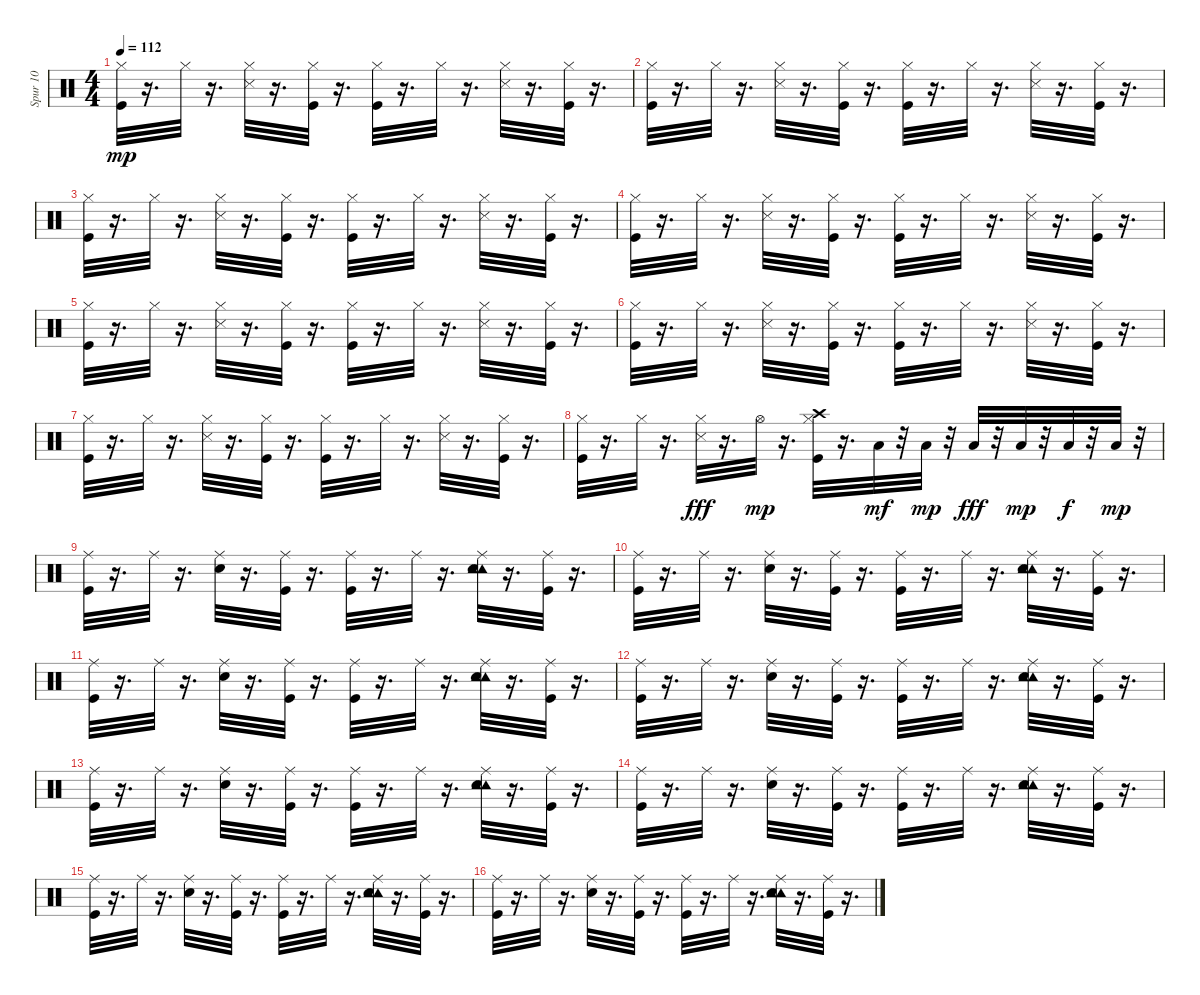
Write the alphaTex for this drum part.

\track ("Spur 10" "Spur 10") {instrument percussion}
\staff {score}
\articulation defaults
\ts (4 4)
\tempo 112
\clef neutral
\ks c
("Kick (hit)" "Hi-Hat (closed)").32{dy mp} r.16{d} "Hi-Hat (closed)".32 r.16{d} ("Snare (side stick) 3" "Hi-Hat (closed)").32 r.16{d} ("Kick (hit)" "Hi-Hat (closed)").32 r.16{d} ("Kick (hit)" "Hi-Hat (closed)").32 r.16{d} "Hi-Hat (closed)".32 r.16{d} ("Snare (side stick) 3" "Hi-Hat (closed)").32 r.16{d} ("Kick (hit)" "Hi-Hat (closed)").32 r.16{d} |
("Kick (hit)" "Hi-Hat (closed)").32 r.16{d} "Hi-Hat (closed)".32 r.16{d} ("Snare (side stick) 3" "Hi-Hat (closed)").32 r.16{d} ("Kick (hit)" "Hi-Hat (closed)").32 r.16{d} ("Kick (hit)" "Hi-Hat (closed)").32 r.16{d} "Hi-Hat (closed)".32 r.16{d} ("Snare (side stick) 3" "Hi-Hat (closed)").32 r.16{d} ("Kick (hit)" "Hi-Hat (closed)").32 r.16{d} |
("Kick (hit)" "Hi-Hat (closed)").32 r.16{d} "Hi-Hat (closed)".32 r.16{d} ("Snare (side stick) 3" "Hi-Hat (closed)").32 r.16{d} ("Kick (hit)" "Hi-Hat (closed)").32 r.16{d} ("Kick (hit)" "Hi-Hat (closed)").32 r.16{d} "Hi-Hat (closed)".32 r.16{d} ("Snare (side stick) 3" "Hi-Hat (closed)").32 r.16{d} ("Kick (hit)" "Hi-Hat (closed)").32 r.16{d} |
("Kick (hit)" "Hi-Hat (closed)").32 r.16{d} "Hi-Hat (closed)".32 r.16{d} ("Snare (side stick) 3" "Hi-Hat (closed)").32 r.16{d} ("Kick (hit)" "Hi-Hat (closed)").32 r.16{d} ("Kick (hit)" "Hi-Hat (closed)").32 r.16{d} "Hi-Hat (closed)".32 r.16{d} ("Snare (side stick) 3" "Hi-Hat (closed)").32 r.16{d} ("Kick (hit)" "Hi-Hat (closed)").32 r.16{d} |
("Kick (hit)" "Hi-Hat (closed)").32 r.16{d} "Hi-Hat (closed)".32 r.16{d} ("Snare (side stick) 3" "Hi-Hat (closed)").32 r.16{d} ("Kick (hit)" "Hi-Hat (closed)").32 r.16{d} ("Kick (hit)" "Hi-Hat (closed)").32 r.16{d} "Hi-Hat (closed)".32 r.16{d} ("Snare (side stick) 3" "Hi-Hat (closed)").32 r.16{d} ("Kick (hit)" "Hi-Hat (closed)").32 r.16{d} |
("Kick (hit)" "Hi-Hat (closed)").32 r.16{d} "Hi-Hat (closed)".32 r.16{d} ("Snare (side stick) 3" "Hi-Hat (closed)").32 r.16{d} ("Kick (hit)" "Hi-Hat (closed)").32 r.16{d} ("Kick (hit)" "Hi-Hat (closed)").32 r.16{d} "Hi-Hat (closed)".32 r.16{d} ("Snare (side stick) 3" "Hi-Hat (closed)").32 r.16{d} ("Kick (hit)" "Hi-Hat (closed)").32 r.16{d} |
("Kick (hit)" "Hi-Hat (closed)").32 r.16{d} "Hi-Hat (closed)".32 r.16{d} ("Snare (side stick) 3" "Hi-Hat (closed)").32 r.16{d} ("Kick (hit)" "Hi-Hat (closed)").32 r.16{d} ("Kick (hit)" "Hi-Hat (closed)").32 r.16{d} "Hi-Hat (closed)".32 r.16{d} ("Snare (side stick) 3" "Hi-Hat (closed)").32 r.16{d} ("Kick (hit)" "Hi-Hat (closed)").32 r.16{d} |
("Kick (hit)" "Hi-Hat (closed)").32 r.16{d} "Hi-Hat (closed)".32 r.16{d} ("Hi-Hat (closed)" "Snare (side stick) 3").32{dy fff} r.16{d} "Hi-Hat (open)".32{dy mp} r.16{d} ("Crash high (hit)" "Kick (hit)" "Hi-Hat (closed)").32 r.16{d} "Low Tom (hit)".32{dy mf} r.32 "Low Tom (hit)".32{dy mp} r.32 "Low Floor Tom (hit)".32{dy fff} r.32 "Low Floor Tom (hit)".32{dy mp} r.32 "Low Floor Tom (hit)".32{dy f} r.32 "Low Floor Tom (hit)".32{dy mp} r.32 |
("Kick (hit)" "Ride (middle)").32 r.16{d} "Ride (middle)".32 r.16{d} ("Snare (hit) 2" "Ride (middle)").32 r.16{d} ("Kick (hit)" "Ride (middle)").32 r.16{d} ("Kick (hit)" "Ride (middle)").32 r.16{d} "Ride (middle)".32 r.16{d} ("Tambourine (hit)" "Snare (hit) 2" "Tambourine (hit)" "Ride (middle)").32 r.16{d} ("Kick (hit)" "Ride (middle)").32 r.16{d} |
("Kick (hit)" "Ride (middle)").32 r.16{d} "Ride (middle)".32 r.16{d} ("Snare (hit) 2" "Ride (middle)").32 r.16{d} ("Kick (hit)" "Ride (middle)").32 r.16{d} ("Kick (hit)" "Ride (middle)").32 r.16{d} "Ride (middle)".32 r.16{d} ("Tambourine (hit)" "Snare (hit) 2" "Tambourine (hit)" "Ride (middle)").32 r.16{d} ("Kick (hit)" "Ride (middle)").32 r.16{d} |
("Kick (hit)" "Ride (middle)").32 r.16{d} "Ride (middle)".32 r.16{d} ("Snare (hit) 2" "Ride (middle)").32 r.16{d} ("Kick (hit)" "Ride (middle)").32 r.16{d} ("Kick (hit)" "Ride (middle)").32 r.16{d} "Ride (middle)".32 r.16{d} ("Tambourine (hit)" "Snare (hit) 2" "Tambourine (hit)" "Ride (middle)").32 r.16{d} ("Kick (hit)" "Ride (middle)").32 r.16{d} |
("Kick (hit)" "Ride (middle)").32 r.16{d} "Ride (middle)".32 r.16{d} ("Snare (hit) 2" "Ride (middle)").32 r.16{d} ("Kick (hit)" "Ride (middle)").32 r.16{d} ("Kick (hit)" "Ride (middle)").32 r.16{d} "Ride (middle)".32 r.16{d} ("Tambourine (hit)" "Snare (hit) 2" "Tambourine (hit)" "Ride (middle)").32 r.16{d} ("Kick (hit)" "Ride (middle)").32 r.16{d} |
("Kick (hit)" "Ride (middle)").32 r.16{d} "Ride (middle)".32 r.16{d} ("Snare (hit) 2" "Ride (middle)").32 r.16{d} ("Kick (hit)" "Ride (middle)").32 r.16{d} ("Kick (hit)" "Ride (middle)").32 r.16{d} "Ride (middle)".32 r.16{d} ("Tambourine (hit)" "Snare (hit) 2" "Tambourine (hit)" "Ride (middle)").32 r.16{d} ("Kick (hit)" "Ride (middle)").32 r.16{d} |
("Kick (hit)" "Ride (middle)").32 r.16{d} "Ride (middle)".32 r.16{d} ("Snare (hit) 2" "Ride (middle)").32 r.16{d} ("Kick (hit)" "Ride (middle)").32 r.16{d} ("Kick (hit)" "Ride (middle)").32 r.16{d} "Ride (middle)".32 r.16{d} ("Tambourine (hit)" "Snare (hit) 2" "Tambourine (hit)" "Ride (middle)").32 r.16{d} ("Kick (hit)" "Ride (middle)").32 r.16{d} |
("Kick (hit)" "Ride (middle)").32 r.16{d} "Ride (middle)".32 r.16{d} ("Snare (hit) 2" "Ride (middle)").32 r.16{d} ("Kick (hit)" "Ride (middle)").32 r.16{d} ("Kick (hit)" "Ride (middle)").32 r.16{d} "Ride (middle)".32 r.16{d} ("Tambourine (hit)" "Snare (hit) 2" "Tambourine (hit)" "Ride (middle)").32 r.16{d} ("Kick (hit)" "Ride (middle)").32 r.16{d} |
("Kick (hit)" "Ride (middle)").32 r.16{d} "Ride (middle)".32 r.16{d} ("Snare (hit) 2" "Ride (middle)").32 r.16{d} ("Kick (hit)" "Ride (middle)").32 r.16{d} ("Kick (hit)" "Ride (middle)").32 r.16{d} "Ride (middle)".32 r.16{d} ("Tambourine (hit)" "Snare (hit) 2" "Tambourine (hit)" "Ride (middle)").32 r.16{d} ("Kick (hit)" "Ride (middle)").32 r.16{d}
